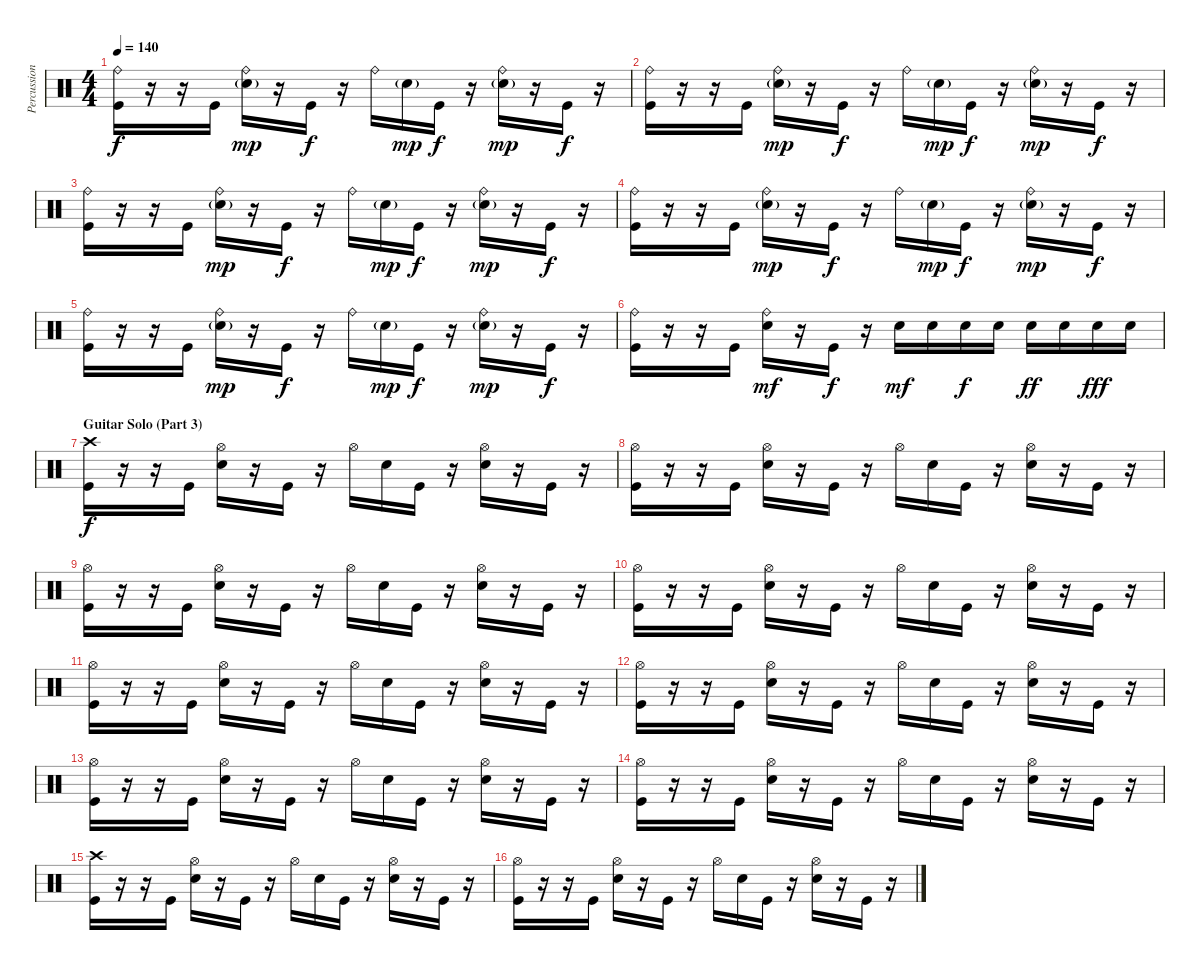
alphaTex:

\track ("Percussion" "Percussion") {instrument percussion}
\staff {score}
\articulation defaults
\ts (4 4)
\tempo 140
\clef neutral
\ks c
("Ride (bell)" "Kick (hit)").16{dy f} r.16 r.16 "Kick (hit)".16 ("Ride (bell)" "Electric Snare (hit)"{g}).16{dy mp} r.16 "Kick (hit)".16{dy f} r.16 "Ride (bell)".16 "Electric Snare (hit)"{g}.16{dy mp} "Kick (hit)".16{dy f} r.16 ("Ride (bell)" "Electric Snare (hit)"{g}).16{dy mp} r.16 "Kick (hit)".16{dy f} r.16 |
("Ride (bell)" "Kick (hit)").16 r.16 r.16 "Kick (hit)".16 ("Ride (bell)" "Electric Snare (hit)"{g}).16{dy mp} r.16 "Kick (hit)".16{dy f} r.16 "Ride (bell)".16 "Electric Snare (hit)"{g}.16{dy mp} "Kick (hit)".16{dy f} r.16 ("Ride (bell)" "Electric Snare (hit)"{g}).16{dy mp} r.16 "Kick (hit)".16{dy f} r.16 |
("Ride (bell)" "Kick (hit)").16 r.16 r.16 "Kick (hit)".16 ("Ride (bell)" "Electric Snare (hit)"{g}).16{dy mp} r.16 "Kick (hit)".16{dy f} r.16 "Ride (bell)".16 "Electric Snare (hit)"{g}.16{dy mp} "Kick (hit)".16{dy f} r.16 ("Ride (bell)" "Electric Snare (hit)"{g}).16{dy mp} r.16 "Kick (hit)".16{dy f} r.16 |
("Ride (bell)" "Kick (hit)").16 r.16 r.16 "Kick (hit)".16 ("Ride (bell)" "Electric Snare (hit)"{g}).16{dy mp} r.16 "Kick (hit)".16{dy f} r.16 "Ride (bell)".16 "Electric Snare (hit)"{g}.16{dy mp} "Kick (hit)".16{dy f} r.16 ("Ride (bell)" "Electric Snare (hit)"{g}).16{dy mp} r.16 "Kick (hit)".16{dy f} r.16 |
("Ride (bell)" "Kick (hit)").16 r.16 r.16 "Kick (hit)".16 ("Ride (bell)" "Electric Snare (hit)"{g}).16{dy mp} r.16 "Kick (hit)".16{dy f} r.16 "Ride (bell)".16 "Electric Snare (hit)"{g}.16{dy mp} "Kick (hit)".16{dy f} r.16 ("Ride (bell)" "Electric Snare (hit)"{g}).16{dy mp} r.16 "Kick (hit)".16{dy f} r.16 |
("Ride (bell)" "Kick (hit)").16 r.16 r.16 "Kick (hit)".16 ("Ride (bell)" "Electric Snare (hit)").16{dy mf} r.16 "Kick (hit)".16{dy f} r.16 "Electric Snare (hit)".16{dy mf} "Electric Snare (hit)".16 "Electric Snare (hit)".16{dy f} "Electric Snare (hit)".16 "Electric Snare (hit)".16{dy ff} "Electric Snare (hit)".16 "Electric Snare (hit)".16{dy fff} "Electric Snare (hit)".16 |
\section ("" "Guitar Solo (Part 3)")
("Crash high (hit)" "Kick (hit)").16{dy f} r.16 r.16 "Kick (hit)".16 ("Hi-Hat (open)" "Electric Snare (hit)").16 r.16 "Kick (hit)".16 r.16 "Hi-Hat (open)".16 "Electric Snare (hit)".16 "Kick (hit)".16 r.16 ("Hi-Hat (open)" "Electric Snare (hit)").16 r.16 "Kick (hit)".16 r.16 |
("Hi-Hat (open)" "Kick (hit)").16 r.16 r.16 "Kick (hit)".16 ("Hi-Hat (open)" "Electric Snare (hit)").16 r.16 "Kick (hit)".16 r.16 "Hi-Hat (open)".16 "Electric Snare (hit)".16 "Kick (hit)".16 r.16 ("Hi-Hat (open)" "Electric Snare (hit)").16 r.16 "Kick (hit)".16 r.16 |
("Hi-Hat (open)" "Kick (hit)").16 r.16 r.16 "Kick (hit)".16 ("Hi-Hat (open)" "Electric Snare (hit)").16 r.16 "Kick (hit)".16 r.16 "Hi-Hat (open)".16 "Electric Snare (hit)".16 "Kick (hit)".16 r.16 ("Hi-Hat (open)" "Electric Snare (hit)").16 r.16 "Kick (hit)".16 r.16 |
("Hi-Hat (open)" "Kick (hit)").16 r.16 r.16 "Kick (hit)".16 ("Hi-Hat (open)" "Electric Snare (hit)").16 r.16 "Kick (hit)".16 r.16 "Hi-Hat (open)".16 "Electric Snare (hit)".16 "Kick (hit)".16 r.16 ("Hi-Hat (open)" "Electric Snare (hit)").16 r.16 "Kick (hit)".16 r.16 |
("Hi-Hat (open)" "Kick (hit)").16 r.16 r.16 "Kick (hit)".16 ("Hi-Hat (open)" "Electric Snare (hit)").16 r.16 "Kick (hit)".16 r.16 "Hi-Hat (open)".16 "Electric Snare (hit)".16 "Kick (hit)".16 r.16 ("Hi-Hat (open)" "Electric Snare (hit)").16 r.16 "Kick (hit)".16 r.16 |
("Hi-Hat (open)" "Kick (hit)").16 r.16 r.16 "Kick (hit)".16 ("Hi-Hat (open)" "Electric Snare (hit)").16 r.16 "Kick (hit)".16 r.16 "Hi-Hat (open)".16 "Electric Snare (hit)".16 "Kick (hit)".16 r.16 ("Hi-Hat (open)" "Electric Snare (hit)").16 r.16 "Kick (hit)".16 r.16 |
("Hi-Hat (open)" "Kick (hit)").16 r.16 r.16 "Kick (hit)".16 ("Hi-Hat (open)" "Electric Snare (hit)").16 r.16 "Kick (hit)".16 r.16 "Hi-Hat (open)".16 "Electric Snare (hit)".16 "Kick (hit)".16 r.16 ("Hi-Hat (open)" "Electric Snare (hit)").16 r.16 "Kick (hit)".16 r.16 |
("Hi-Hat (open)" "Kick (hit)").16 r.16 r.16 "Kick (hit)".16 ("Hi-Hat (open)" "Electric Snare (hit)").16 r.16 "Kick (hit)".16 r.16 "Hi-Hat (open)".16 "Electric Snare (hit)".16 "Kick (hit)".16 r.16 ("Hi-Hat (open)" "Electric Snare (hit)").16 r.16 "Kick (hit)".16 r.16 |
("Crash high (hit)" "Kick (hit)").16 r.16 r.16 "Kick (hit)".16 ("Hi-Hat (open)" "Electric Snare (hit)").16 r.16 "Kick (hit)".16 r.16 "Hi-Hat (open)".16 "Electric Snare (hit)".16 "Kick (hit)".16 r.16 ("Hi-Hat (open)" "Electric Snare (hit)").16 r.16 "Kick (hit)".16 r.16 |
("Hi-Hat (open)" "Kick (hit)").16 r.16 r.16 "Kick (hit)".16 ("Hi-Hat (open)" "Electric Snare (hit)").16 r.16 "Kick (hit)".16 r.16 "Hi-Hat (open)".16 "Electric Snare (hit)".16 "Kick (hit)".16 r.16 ("Hi-Hat (open)" "Electric Snare (hit)").16 r.16 "Kick (hit)".16 r.16
